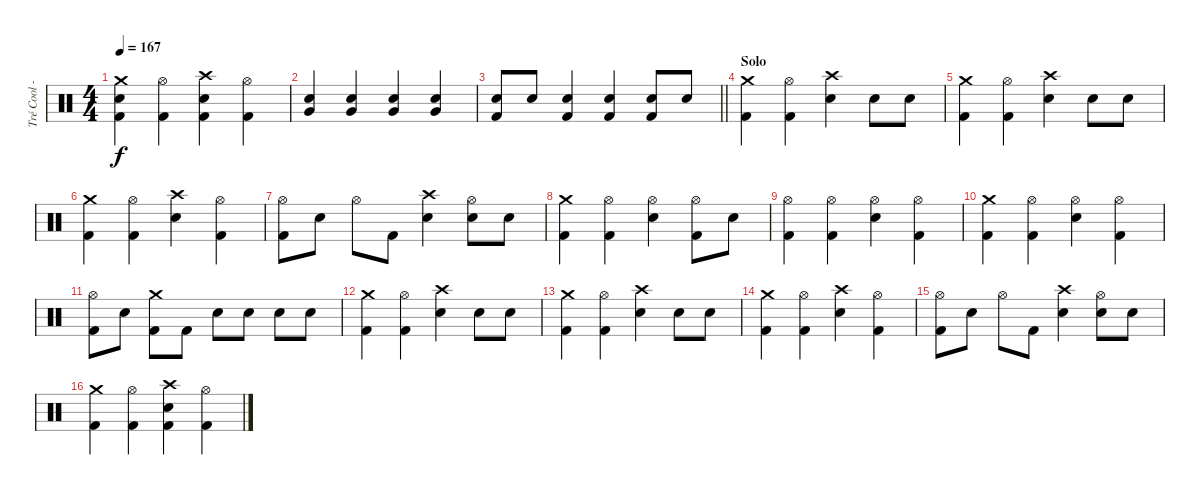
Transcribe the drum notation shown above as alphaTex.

\track ("Tré Cool - Drums" "Tré Cool -") {instrument percussion}
\staff {score}
\articulation defaults
\ts (4 4)
\tempo 167
\clef neutral
\ks c
("Crash medium (hit)" "Electric Snare (hit)" "Kick (hit) 2").4{dy f} ("Hi-Hat (open)" "Kick (hit) 2").4 ("Crash high (hit)" "Electric Snare (hit)" "Kick (hit) 2").4 ("Hi-Hat (open)" "Kick (hit) 2").4 |
("Electric Snare (hit)" "Very Low Tom (hit)").4 ("Electric Snare (hit)" "Very Low Tom (hit)").4 ("Electric Snare (hit)" "Very Low Tom (hit)").4 ("Electric Snare (hit)" "Very Low Tom (hit)").4 |
\barLineRight lightlight
("Electric Snare (hit)" "Kick (hit) 2").8 "Electric Snare (hit)".8 ("Electric Snare (hit)" "Kick (hit) 2").4 ("Electric Snare (hit)" "Kick (hit) 2").4 ("Electric Snare (hit)" "Kick (hit) 2").8 "Electric Snare (hit)".8 |
\section ("" "Solo")
("Crash medium (hit)" "Kick (hit) 2").4 ("Hi-Hat (open)" "Kick (hit) 2").4 ("Crash high (hit)" "Electric Snare (hit)").4 "Electric Snare (hit)".8 "Electric Snare (hit)".8 |
("Crash medium (hit)" "Kick (hit) 2").4 ("Hi-Hat (open)" "Kick (hit) 2").4 ("Crash high (hit)" "Electric Snare (hit)").4 "Electric Snare (hit)".8 "Electric Snare (hit)".8 |
("Crash medium (hit)" "Kick (hit) 2").4 ("Hi-Hat (open)" "Kick (hit) 2").4 ("Crash high (hit)" "Electric Snare (hit)").4 ("Hi-Hat (open)" "Kick (hit) 2").4 |
("Hi-Hat (open)" "Kick (hit) 2").8 "Electric Snare (hit)".8 "Hi-Hat (open)".8 "Kick (hit) 2".8 ("Crash high (hit)" "Electric Snare (hit)").4 ("Hi-Hat (open)" "Electric Snare (hit)").8 "Electric Snare (hit)".8 |
("Crash medium (hit)" "Kick (hit) 2").4 ("Hi-Hat (open)" "Kick (hit) 2").4 ("Hi-Hat (open)" "Electric Snare (hit)").4 ("Hi-Hat (open)" "Kick (hit) 2").8 "Electric Snare (hit)".8 |
("Hi-Hat (open)" "Kick (hit) 2").4 ("Hi-Hat (open)" "Kick (hit) 2").4 ("Hi-Hat (open)" "Electric Snare (hit)").4 ("Hi-Hat (open)" "Kick (hit) 2").4 |
("Crash medium (hit)" "Kick (hit) 2").4 ("Hi-Hat (open)" "Kick (hit) 2").4 ("Hi-Hat (open)" "Electric Snare (hit)").4 ("Hi-Hat (open)" "Kick (hit) 2").4 |
("Hi-Hat (open)" "Kick (hit) 2").8 "Electric Snare (hit)".8 ("Crash medium (hit)" "Kick (hit) 2").8 "Kick (hit) 2".8 "Electric Snare (hit)".8 "Electric Snare (hit)".8 "Electric Snare (hit)".8 "Electric Snare (hit)".8 |
("Crash medium (hit)" "Kick (hit) 2").4 ("Hi-Hat (open)" "Kick (hit) 2").4 ("Crash high (hit)" "Electric Snare (hit)").4 "Electric Snare (hit)".8 "Electric Snare (hit)".8 |
("Crash medium (hit)" "Kick (hit) 2").4 ("Hi-Hat (open)" "Kick (hit) 2").4 ("Crash high (hit)" "Electric Snare (hit)").4 "Electric Snare (hit)".8 "Electric Snare (hit)".8 |
("Crash medium (hit)" "Kick (hit) 2").4 ("Hi-Hat (open)" "Kick (hit) 2").4 ("Crash high (hit)" "Electric Snare (hit)").4 ("Hi-Hat (open)" "Kick (hit) 2").4 |
("Hi-Hat (open)" "Kick (hit) 2").8 "Electric Snare (hit)".8 "Hi-Hat (open)".8 "Kick (hit) 2".8 ("Crash high (hit)" "Electric Snare (hit)").4 ("Hi-Hat (open)" "Electric Snare (hit)").8 "Electric Snare (hit)".8 |
("Crash medium (hit)" "Kick (hit) 2").4 ("Hi-Hat (open)" "Kick (hit) 2").4 ("Crash high (hit)" "Electric Snare (hit)" "Kick (hit) 2").4 ("Hi-Hat (open)" "Kick (hit) 2").4
